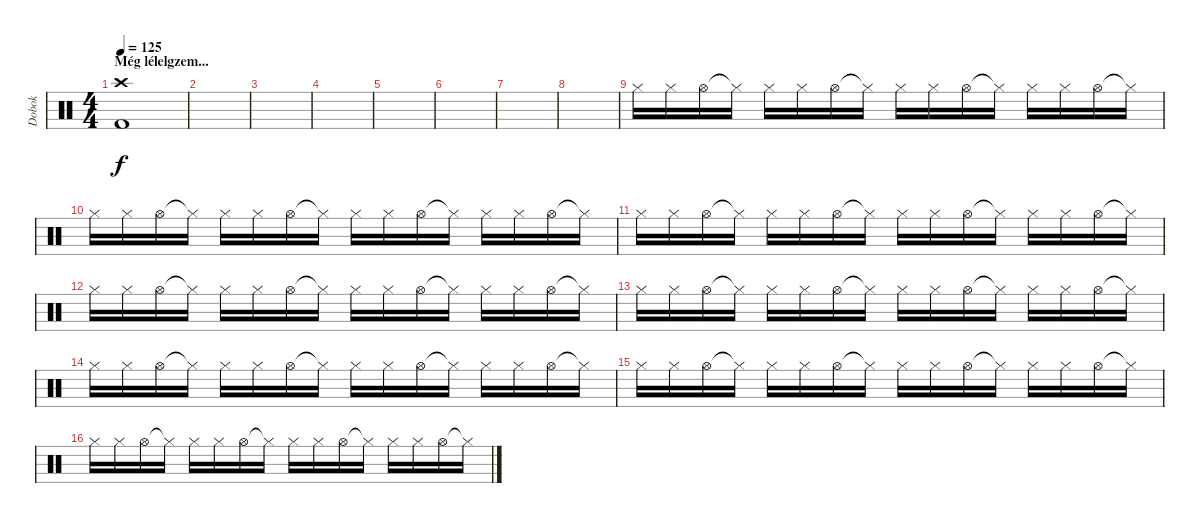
\track ("Dobok" "Dobok") {instrument percussion}
\staff {score}
\articulation defaults
\ts (4 4)
\section ("" "Még lélelgzem...")
\tempo 125
\clef neutral
\ks c
("Crash high (hit)" "Kick (hit) 2").1{dy f} |
|
|
|
|
|
|
|
"Hi-Hat (closed)".16 "Hi-Hat (closed)".16 "Hi-Hat (open)".16 "Hi-Hat (closed)"{t}.16 "Hi-Hat (closed)".16 "Hi-Hat (closed)".16 "Hi-Hat (open)".16 "Hi-Hat (closed)"{t}.16 "Hi-Hat (closed)".16 "Hi-Hat (closed)".16 "Hi-Hat (open)".16 "Hi-Hat (closed)"{t}.16 "Hi-Hat (closed)".16 "Hi-Hat (closed)".16 "Hi-Hat (open)".16 "Hi-Hat (closed)"{t}.16 |
"Hi-Hat (closed)".16 "Hi-Hat (closed)".16 "Hi-Hat (open)".16 "Hi-Hat (closed)"{t}.16 "Hi-Hat (closed)".16 "Hi-Hat (closed)".16 "Hi-Hat (open)".16 "Hi-Hat (closed)"{t}.16 "Hi-Hat (closed)".16 "Hi-Hat (closed)".16 "Hi-Hat (open)".16 "Hi-Hat (closed)"{t}.16 "Hi-Hat (closed)".16 "Hi-Hat (closed)".16 "Hi-Hat (open)".16 "Hi-Hat (closed)"{t}.16 |
"Hi-Hat (closed)".16 "Hi-Hat (closed)".16 "Hi-Hat (open)".16 "Hi-Hat (closed)"{t}.16 "Hi-Hat (closed)".16 "Hi-Hat (closed)".16 "Hi-Hat (open)".16 "Hi-Hat (closed)"{t}.16 "Hi-Hat (closed)".16 "Hi-Hat (closed)".16 "Hi-Hat (open)".16 "Hi-Hat (closed)"{t}.16 "Hi-Hat (closed)".16 "Hi-Hat (closed)".16 "Hi-Hat (open)".16 "Hi-Hat (closed)"{t}.16 |
"Hi-Hat (closed)".16 "Hi-Hat (closed)".16 "Hi-Hat (open)".16 "Hi-Hat (closed)"{t}.16 "Hi-Hat (closed)".16 "Hi-Hat (closed)".16 "Hi-Hat (open)".16 "Hi-Hat (closed)"{t}.16 "Hi-Hat (closed)".16 "Hi-Hat (closed)".16 "Hi-Hat (open)".16 "Hi-Hat (closed)"{t}.16 "Hi-Hat (closed)".16 "Hi-Hat (closed)".16 "Hi-Hat (open)".16 "Hi-Hat (closed)"{t}.16 |
"Hi-Hat (closed)".16 "Hi-Hat (closed)".16 "Hi-Hat (open)".16 "Hi-Hat (closed)"{t}.16 "Hi-Hat (closed)".16 "Hi-Hat (closed)".16 "Hi-Hat (open)".16 "Hi-Hat (closed)"{t}.16 "Hi-Hat (closed)".16 "Hi-Hat (closed)".16 "Hi-Hat (open)".16 "Hi-Hat (closed)"{t}.16 "Hi-Hat (closed)".16 "Hi-Hat (closed)".16 "Hi-Hat (open)".16 "Hi-Hat (closed)"{t}.16 |
"Hi-Hat (closed)".16 "Hi-Hat (closed)".16 "Hi-Hat (open)".16 "Hi-Hat (closed)"{t}.16 "Hi-Hat (closed)".16 "Hi-Hat (closed)".16 "Hi-Hat (open)".16 "Hi-Hat (closed)"{t}.16 "Hi-Hat (closed)".16 "Hi-Hat (closed)".16 "Hi-Hat (open)".16 "Hi-Hat (closed)"{t}.16 "Hi-Hat (closed)".16 "Hi-Hat (closed)".16 "Hi-Hat (open)".16 "Hi-Hat (closed)"{t}.16 |
"Hi-Hat (closed)".16 "Hi-Hat (closed)".16 "Hi-Hat (open)".16 "Hi-Hat (closed)"{t}.16 "Hi-Hat (closed)".16 "Hi-Hat (closed)".16 "Hi-Hat (open)".16 "Hi-Hat (closed)"{t}.16 "Hi-Hat (closed)".16 "Hi-Hat (closed)".16 "Hi-Hat (open)".16 "Hi-Hat (closed)"{t}.16 "Hi-Hat (closed)".16 "Hi-Hat (closed)".16 "Hi-Hat (open)".16 "Hi-Hat (closed)"{t}.16 |
"Hi-Hat (closed)".16 "Hi-Hat (closed)".16 "Hi-Hat (open)".16 "Hi-Hat (closed)"{t}.16 "Hi-Hat (closed)".16 "Hi-Hat (closed)".16 "Hi-Hat (open)".16 "Hi-Hat (closed)"{t}.16 "Hi-Hat (closed)".16 "Hi-Hat (closed)".16 "Hi-Hat (open)".16 "Hi-Hat (closed)"{t}.16 "Hi-Hat (closed)".16 "Hi-Hat (closed)".16 "Hi-Hat (open)".16 "Hi-Hat (closed)"{t}.16
